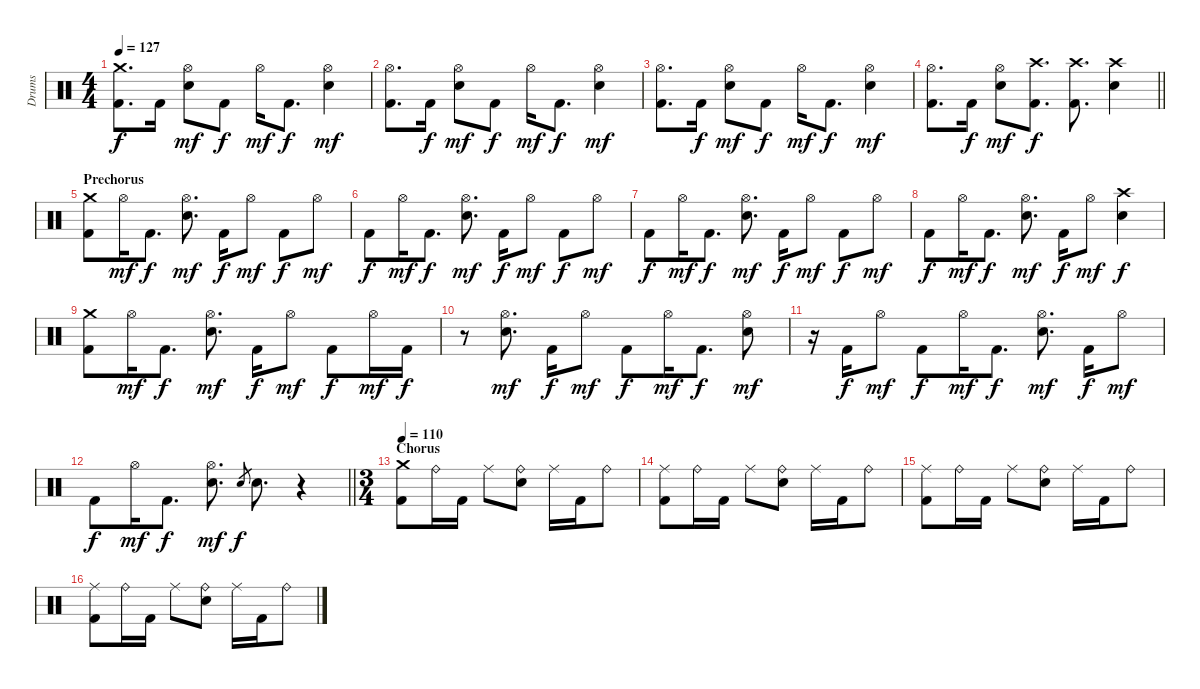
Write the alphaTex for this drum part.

\track ("Drums" "Drums") {instrument percussion}
\staff {score}
\articulation defaults
\ts (4 4)
\tempo 127
\clef neutral
\ks c
("Kick (hit) 2" "Crash medium (hit)").8{d dy f} "Kick (hit) 2".16 ("Hi-Hat (open)" "Electric Snare (hit)").8{dy mf} "Kick (hit) 2".8{dy f} "Hi-Hat (open)".16{dy mf} "Kick (hit) 2".8{d dy f} ("Hi-Hat (open)" "Electric Snare (hit)").4{dy mf} |
("Kick (hit) 2" "Hi-Hat (open)").8{d} "Kick (hit) 2".16{dy f} ("Hi-Hat (open)" "Electric Snare (hit)").8{dy mf} "Kick (hit) 2".8{dy f} "Hi-Hat (open)".16{dy mf} "Kick (hit) 2".8{d dy f} ("Hi-Hat (open)" "Electric Snare (hit)").4{dy mf} |
("Kick (hit) 2" "Hi-Hat (open)").8{d} "Kick (hit) 2".16{dy f} ("Hi-Hat (open)" "Electric Snare (hit)").8{dy mf} "Kick (hit) 2".8{dy f} "Hi-Hat (open)".16{dy mf} "Kick (hit) 2".8{d dy f} ("Hi-Hat (open)" "Electric Snare (hit)").4{dy mf} |
\barLineRight lightlight
("Kick (hit) 2" "Hi-Hat (open)").8{d} "Kick (hit) 2".16{dy f} ("Hi-Hat (open)" "Electric Snare (hit)").8{dy mf} ("Kick (hit) 2" "Crash high (hit)").8{d dy f} ("Kick (hit) 2" "Crash high (hit)").8{d} ("Crash high (hit)" "Electric Snare (hit)").4 |
\section ("" "Prechorus")
("Kick (hit) 2" "Crash medium (hit)").8 "Hi-Hat (open)".16{dy mf} "Kick (hit) 2".8{d dy f} ("Hi-Hat (open)" "Electric Snare (hit)").8{d dy mf} "Kick (hit) 2".16{dy f} "Hi-Hat (open)".8{dy mf} "Kick (hit) 2".8{dy f} "Hi-Hat (open)".8{dy mf} |
"Kick (hit) 2".8{dy f} "Hi-Hat (open)".16{dy mf} "Kick (hit) 2".8{d dy f} ("Hi-Hat (open)" "Electric Snare (hit)").8{d dy mf} "Kick (hit) 2".16{dy f} "Hi-Hat (open)".8{dy mf} "Kick (hit) 2".8{dy f} "Hi-Hat (open)".8{dy mf} |
"Kick (hit) 2".8{dy f} "Hi-Hat (open)".16{dy mf} "Kick (hit) 2".8{d dy f} ("Hi-Hat (open)" "Electric Snare (hit)").8{d dy mf} "Kick (hit) 2".16{dy f} "Hi-Hat (open)".8{dy mf} "Kick (hit) 2".8{dy f} "Hi-Hat (open)".8{dy mf} |
"Kick (hit) 2".8{dy f} "Hi-Hat (open)".16{dy mf} "Kick (hit) 2".8{d dy f} ("Hi-Hat (open)" "Electric Snare (hit)").8{d dy mf} "Kick (hit) 2".16{dy f} "Hi-Hat (open)".8{dy mf} ("Crash high (hit)" "Electric Snare (hit)").4{dy f} |
("Kick (hit) 2" "Crash medium (hit)").8 "Hi-Hat (open)".16{dy mf} "Kick (hit) 2".8{d dy f} ("Hi-Hat (open)" "Electric Snare (hit)").8{d dy mf} "Kick (hit) 2".16{dy f} "Hi-Hat (open)".8{dy mf} "Kick (hit) 2".8{dy f} "Hi-Hat (open)".16{dy mf} "Kick (hit) 2".16{dy f} |
r.8 ("Hi-Hat (open)" "Electric Snare (hit)").8{d dy mf} "Kick (hit) 2".16{dy f} "Hi-Hat (open)".8{dy mf} "Kick (hit) 2".8{dy f} "Hi-Hat (open)".16{dy mf} "Kick (hit) 2".8{d dy f} ("Hi-Hat (open)" "Electric Snare (hit)").8{dy mf} |
r.16 "Kick (hit) 2".16{dy f} "Hi-Hat (open)".8{dy mf} "Kick (hit) 2".8{dy f} "Hi-Hat (open)".16{dy mf} "Kick (hit) 2".8{d dy f} ("Hi-Hat (open)" "Electric Snare (hit)").8{d dy mf} "Kick (hit) 2".16{dy f} "Hi-Hat (open)".8{dy mf} |
\barLineRight lightlight "Kick (hit) 2".8{dy f} "Hi-Hat (open)".16{dy mf} "Kick (hit) 2".8{d dy f}
("Hi-Hat (open)" "Electric Snare (hit)").8{d dy mf} "Electric Snare (hit)".8{gr dy f} "Electric Snare (hit)".8{d} r.4 |
\ts (3 4)
\section ("" "Chorus")
\tempo 110
("Kick (hit) 2" "Crash medium (hit)").8 "Ride (bell)".16 "Kick (hit) 2".16 "Ride (middle)".8 ("Ride (bell)" "Electric Snare (hit)").8 "Ride (middle)".16 "Kick (hit) 2".16 "Ride (bell)".8 |
("Kick (hit) 2" "Ride (middle)").8 "Ride (bell)".16 "Kick (hit) 2".16 "Ride (middle)".8 ("Ride (bell)" "Electric Snare (hit)").8 "Ride (middle)".16 "Kick (hit) 2".16 "Ride (bell)".8 |
("Kick (hit) 2" "Ride (middle)").8 "Ride (bell)".16 "Kick (hit) 2".16 "Ride (middle)".8 ("Ride (bell)" "Electric Snare (hit)").8 "Ride (middle)".16 "Kick (hit) 2".16 "Ride (bell)".8 |
("Kick (hit) 2" "Ride (middle)").8 "Ride (bell)".16 "Kick (hit) 2".16 "Ride (middle)".8 ("Ride (bell)" "Electric Snare (hit)").8 "Ride (middle)".16 "Kick (hit) 2".16 "Ride (bell)".8
